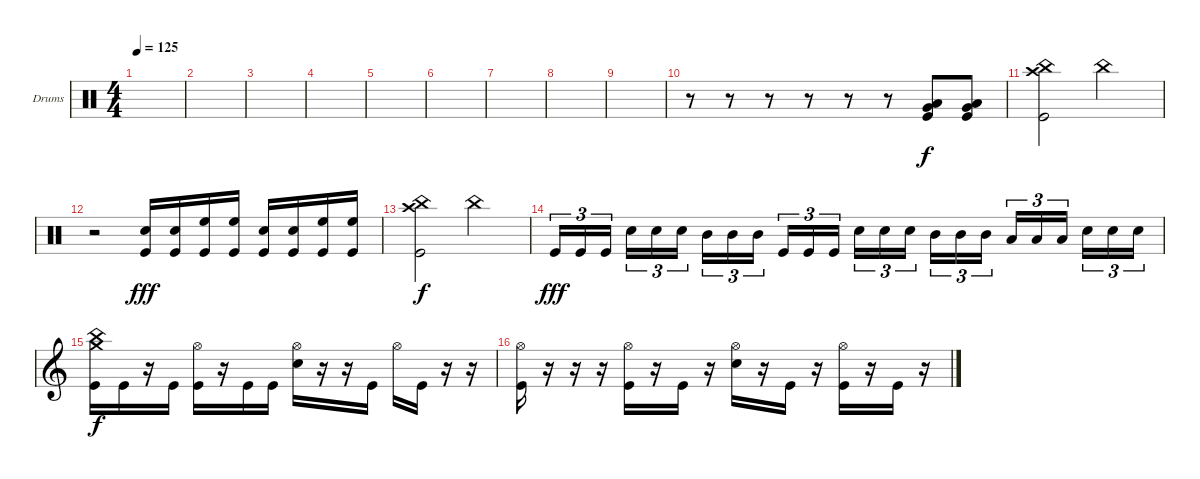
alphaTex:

\defaultSystemsLayout 4
\bracketExtendMode groupsimilarinstruments
\firstSystemTrackNameOrientation horizontal
\otherSystemsTrackNameOrientation horizontal
\track ("Drumkit" "Drums") {instrument percussion}
\staff {score}
\articulation defaults
\ts (4 4)
\tempo 125
\clef neutral
\ks c
|
|
|
|
|
|
|
|
|
r.8 r.8 r.8 r.8 r.8 r.8 ("Kick (hit)" "Very Low Tom (hit)" "Low Tom (hit)").8 ("Kick (hit)" "Very Low Tom (hit)" "Low Tom (hit)").8 |
("Kick (hit)" "China (hit)" "Crash high (hit)").2{dy f} "China (hit)".2 |
r.2 ("Snare (hit) 2" "Kick (hit)").16{dy fff} ("Snare (hit) 2" "Kick (hit)").16 ("High Floor Tom (hit)" "Kick (hit)").16 ("High Floor Tom (hit)" "Kick (hit)").16 ("Snare (hit) 2" "Kick (hit)").16 ("Snare (hit) 2" "Kick (hit)").16 ("Kick (hit)" "High Floor Tom (hit)").16 ("Kick (hit)" "High Floor Tom (hit)").16 |
("Kick (hit)" "China (hit)" "Crash high (hit)").2{dy f} "China (hit)".2 |
"Kick (hit)".16{tu (3 2) dy fff} "Kick (hit)".16{tu (3 2)} "Kick (hit)".16{tu (3 2)} "Snare (hit) 2".16{tu (3 2)} "Snare (hit) 2".16{tu (3 2)} "Snare (hit) 2".16{tu (3 2)} "Mid Tom (hit)".16{tu (3 2)} "Mid Tom (hit)".16{tu (3 2)} "Mid Tom (hit)".16{tu (3 2)} "Kick (hit)".16{tu (3 2)} "Kick (hit)".16{tu (3 2)} "Kick (hit)".16{tu (3 2)} "Snare (hit) 2".16{tu (3 2)} "Snare (hit) 2".16{tu (3 2)} "Snare (hit) 2".16{tu (3 2)} "Mid Tom (hit)".16{tu (3 2)} "Mid Tom (hit)".16{tu (3 2)} "Mid Tom (hit)".16{tu (3 2)} "Low Tom (hit)".16{tu (3 2)} "Low Tom (hit)".16{tu (3 2)} "Low Tom (hit)".16{tu (3 2)} "Snare (hit) 2".16{tu (3 2)} "Snare (hit) 2".16{tu (3 2)} "Snare (hit) 2".16{tu (3 2)} |
\clef g2
("Kick (hit)" "Crash medium (hit)" "China (hit)").16{dy f} "Kick (hit)".16 r.16 "Kick (hit)".16 ("Kick (hit)" "Hi-Hat (open)").16 r.16 "Kick (hit)".16 "Kick (hit)".16 ("Snare (hit) 2" "Hi-Hat (open)").16 r.16 r.16 "Kick (hit)".16 "Hi-Hat (open)".16 "Kick (hit)".16 r.16 r.16 |
("Kick (hit)" "Hi-Hat (open)").16 r.16 r.16 r.16 ("Kick (hit)" "Hi-Hat (open)").16 r.16 "Kick (hit)".16 r.16 ("Snare (hit) 2" "Hi-Hat (open)").16 r.16 "Kick (hit)".16 r.16 ("Kick (hit)" "Hi-Hat (open)").16 r.16 "Kick (hit)".16 r.16
